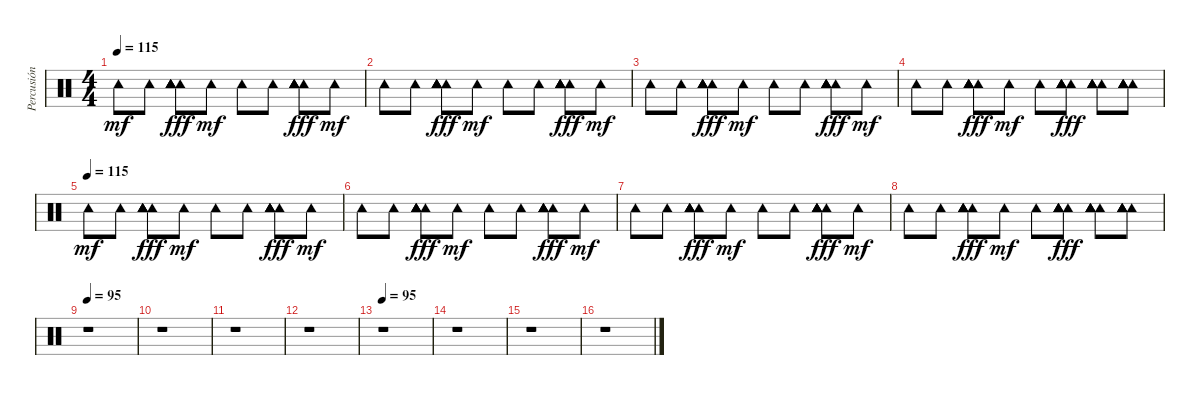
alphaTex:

\track ("Percusión " "Percusión ") {instrument percussion}
\staff {score}
\articulation defaults
\ts (4 4)
\tempo 115
\clef neutral
\ks c "Tambourine (hit)".8{dy mf} "Tambourine (hit)".8
("Tambourine (hit)" "Tambourine (hit)" "Tambourine (hit)" "Tambourine (hit)" "Tambourine (hit)" "Tambourine (hit)").8{dy fff} "Tambourine (hit)".8{dy mf} "Tambourine (hit)".8 "Tambourine (hit)".8 ("Tambourine (hit)" "Tambourine (hit)" "Tambourine (hit)" "Tambourine (hit)" "Tambourine (hit)" "Tambourine (hit)").8{dy fff} "Tambourine (hit)".8{dy mf} |
"Tambourine (hit)".8 "Tambourine (hit)".8 ("Tambourine (hit)" "Tambourine (hit)" "Tambourine (hit)" "Tambourine (hit)" "Tambourine (hit)" "Tambourine (hit)").8{dy fff} "Tambourine (hit)".8{dy mf} "Tambourine (hit)".8 "Tambourine (hit)".8 ("Tambourine (hit)" "Tambourine (hit)" "Tambourine (hit)" "Tambourine (hit)" "Tambourine (hit)" "Tambourine (hit)").8{dy fff} "Tambourine (hit)".8{dy mf} |
"Tambourine (hit)".8 "Tambourine (hit)".8 ("Tambourine (hit)" "Tambourine (hit)" "Tambourine (hit)" "Tambourine (hit)" "Tambourine (hit)" "Tambourine (hit)").8{dy fff} "Tambourine (hit)".8{dy mf} "Tambourine (hit)".8 "Tambourine (hit)".8 ("Tambourine (hit)" "Tambourine (hit)" "Tambourine (hit)" "Tambourine (hit)" "Tambourine (hit)" "Tambourine (hit)").8{dy fff} "Tambourine (hit)".8{dy mf} |
"Tambourine (hit)".8 "Tambourine (hit)".8 ("Tambourine (hit)" "Tambourine (hit)" "Tambourine (hit)" "Tambourine (hit)" "Tambourine (hit)" "Tambourine (hit)").8{dy fff} "Tambourine (hit)".8{dy mf} "Tambourine (hit)".8 ("Tambourine (hit)" "Tambourine (hit)" "Tambourine (hit)" "Tambourine (hit)" "Tambourine (hit)" "Tambourine (hit)").8{dy fff} ("Tambourine (hit)" "Tambourine (hit)" "Tambourine (hit)" "Tambourine (hit)" "Tambourine (hit)" "Tambourine (hit)").8 ("Tambourine (hit)" "Tambourine (hit)" "Tambourine (hit)" "Tambourine (hit)" "Tambourine (hit)" "Tambourine (hit)").8 |
\tempo (115)
"Tambourine (hit)".8{dy mf} "Tambourine (hit)".8 ("Tambourine (hit)" "Tambourine (hit)" "Tambourine (hit)" "Tambourine (hit)" "Tambourine (hit)" "Tambourine (hit)").8{dy fff} "Tambourine (hit)".8{dy mf} "Tambourine (hit)".8 "Tambourine (hit)".8 ("Tambourine (hit)" "Tambourine (hit)" "Tambourine (hit)" "Tambourine (hit)" "Tambourine (hit)" "Tambourine (hit)").8{dy fff} "Tambourine (hit)".8{dy mf} |
"Tambourine (hit)".8 "Tambourine (hit)".8 ("Tambourine (hit)" "Tambourine (hit)" "Tambourine (hit)" "Tambourine (hit)" "Tambourine (hit)" "Tambourine (hit)").8{dy fff} "Tambourine (hit)".8{dy mf} "Tambourine (hit)".8 "Tambourine (hit)".8 ("Tambourine (hit)" "Tambourine (hit)" "Tambourine (hit)" "Tambourine (hit)" "Tambourine (hit)" "Tambourine (hit)").8{dy fff} "Tambourine (hit)".8{dy mf} |
"Tambourine (hit)".8 "Tambourine (hit)".8 ("Tambourine (hit)" "Tambourine (hit)" "Tambourine (hit)" "Tambourine (hit)" "Tambourine (hit)" "Tambourine (hit)").8{dy fff} "Tambourine (hit)".8{dy mf} "Tambourine (hit)".8 "Tambourine (hit)".8 ("Tambourine (hit)" "Tambourine (hit)" "Tambourine (hit)" "Tambourine (hit)" "Tambourine (hit)" "Tambourine (hit)").8{dy fff} "Tambourine (hit)".8{dy mf} |
"Tambourine (hit)".8 "Tambourine (hit)".8 ("Tambourine (hit)" "Tambourine (hit)" "Tambourine (hit)" "Tambourine (hit)" "Tambourine (hit)" "Tambourine (hit)").8{dy fff} "Tambourine (hit)".8{dy mf} "Tambourine (hit)".8 ("Tambourine (hit)" "Tambourine (hit)" "Tambourine (hit)" "Tambourine (hit)" "Tambourine (hit)" "Tambourine (hit)").8{dy fff} ("Tambourine (hit)" "Tambourine (hit)" "Tambourine (hit)" "Tambourine (hit)" "Tambourine (hit)" "Tambourine (hit)").8 ("Tambourine (hit)" "Tambourine (hit)" "Tambourine (hit)" "Tambourine (hit)" "Tambourine (hit)" "Tambourine (hit)").8 |
\tempo 95
r.1 |
r.1 |
r.1 |
r.1 |
\tempo 95
r.1 |
r.1 |
r.1 |
r.1
